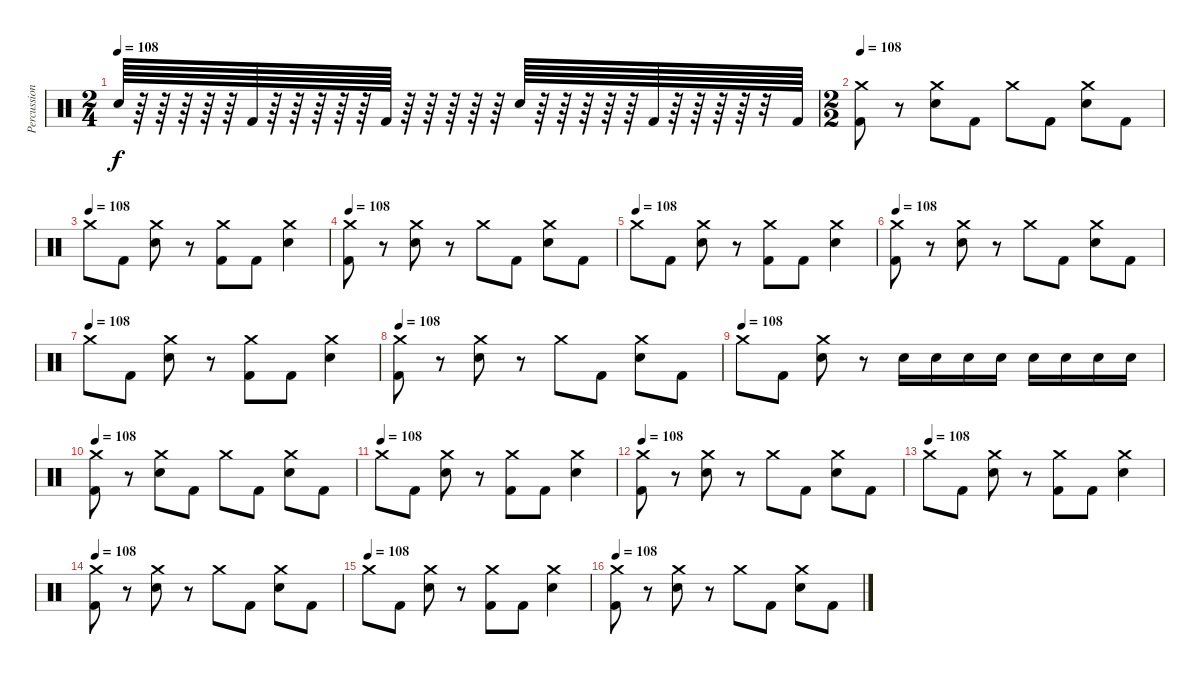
\track ("Percussion" "Percussion") {instrument percussion}
\staff {score}
\articulation defaults
\ts (2 4)
\tempo 108
\clef neutral
\ks c "Electric Snare (hit)".64{dy f}
r.64 r.64 r.64 r.64 r.64 "Kick (hit) 2".64 r.64 r.64 r.64 r.64 r.64 "Kick (hit) 2".64 r.64 r.64 r.64 r.64 r.64 "Electric Snare (hit)".64 r.64 r.64 r.64 r.64 r.64 "Kick (hit) 2".64 r.64 r.64 r.64 r.64 r.32 "Kick (hit) 2".64 |
\ts (2 2)
\tempo 108
("Crash medium (hit)" "Kick (hit) 2").8 r.8 ("Crash medium (hit)" "Electric Snare (hit)").8 "Kick (hit) 2".8 "Crash medium (hit)".8 "Kick (hit) 2".8 ("Crash medium (hit)" "Electric Snare (hit)").8 "Kick (hit) 2".8 |
\tempo (108)
"Crash medium (hit)".8 "Kick (hit) 2".8 ("Crash medium (hit)" "Electric Snare (hit)").8 r.8 ("Crash medium (hit)" "Kick (hit) 2").8 "Kick (hit) 2".8 ("Crash medium (hit)" "Electric Snare (hit)").4 |
\tempo 108
("Crash medium (hit)" "Kick (hit) 2").8 r.8 ("Crash medium (hit)" "Electric Snare (hit)").8 r.8 "Crash medium (hit)".8 "Kick (hit) 2".8 ("Crash medium (hit)" "Electric Snare (hit)").8 "Kick (hit) 2".8 |
\tempo (108)
"Crash medium (hit)".8 "Kick (hit) 2".8 ("Crash medium (hit)" "Electric Snare (hit)").8 r.8 ("Crash medium (hit)" "Kick (hit) 2").8 "Kick (hit) 2".8 ("Crash medium (hit)" "Electric Snare (hit)").4 |
\tempo 108
("Crash medium (hit)" "Kick (hit) 2").8 r.8 ("Crash medium (hit)" "Electric Snare (hit)").8 r.8 "Crash medium (hit)".8 "Kick (hit) 2".8 ("Crash medium (hit)" "Electric Snare (hit)").8 "Kick (hit) 2".8 |
\tempo (108)
"Crash medium (hit)".8 "Kick (hit) 2".8 ("Crash medium (hit)" "Electric Snare (hit)").8 r.8 ("Crash medium (hit)" "Kick (hit) 2").8 "Kick (hit) 2".8 ("Crash medium (hit)" "Electric Snare (hit)").4 |
\tempo 108
("Crash medium (hit)" "Kick (hit) 2").8 r.8 ("Crash medium (hit)" "Electric Snare (hit)").8 r.8 "Crash medium (hit)".8 "Kick (hit) 2".8 ("Crash medium (hit)" "Electric Snare (hit)").8 "Kick (hit) 2".8 |
\tempo (108)
"Crash medium (hit)".8 "Kick (hit) 2".8 ("Crash medium (hit)" "Electric Snare (hit)").8 r.8 "Electric Snare (hit)".16 "Electric Snare (hit)".16 "Electric Snare (hit)".16 "Electric Snare (hit)".16 "Electric Snare (hit)".16 "Electric Snare (hit)".16 "Electric Snare (hit)".16 "Electric Snare (hit)".16 |
\tempo 108
("Crash medium (hit)" "Kick (hit) 2").8 r.8 ("Crash medium (hit)" "Electric Snare (hit)").8 "Kick (hit) 2".8 "Crash medium (hit)".8 "Kick (hit) 2".8 ("Crash medium (hit)" "Electric Snare (hit)").8 "Kick (hit) 2".8 |
\tempo (108)
"Crash medium (hit)".8 "Kick (hit) 2".8 ("Crash medium (hit)" "Electric Snare (hit)").8 r.8 ("Crash medium (hit)" "Kick (hit) 2").8 "Kick (hit) 2".8 ("Crash medium (hit)" "Electric Snare (hit)").4 |
\tempo 108
("Crash medium (hit)" "Kick (hit) 2").8 r.8 ("Crash medium (hit)" "Electric Snare (hit)").8 r.8 "Crash medium (hit)".8 "Kick (hit) 2".8 ("Crash medium (hit)" "Electric Snare (hit)").8 "Kick (hit) 2".8 |
\tempo (108)
"Crash medium (hit)".8 "Kick (hit) 2".8 ("Crash medium (hit)" "Electric Snare (hit)").8 r.8 ("Crash medium (hit)" "Kick (hit) 2").8 "Kick (hit) 2".8 ("Crash medium (hit)" "Electric Snare (hit)").4 |
\tempo 108
("Crash medium (hit)" "Kick (hit) 2").8 r.8 ("Crash medium (hit)" "Electric Snare (hit)").8 r.8 "Crash medium (hit)".8 "Kick (hit) 2".8 ("Crash medium (hit)" "Electric Snare (hit)").8 "Kick (hit) 2".8 |
\tempo (108)
"Crash medium (hit)".8 "Kick (hit) 2".8 ("Crash medium (hit)" "Electric Snare (hit)").8 r.8 ("Crash medium (hit)" "Kick (hit) 2").8 "Kick (hit) 2".8 ("Crash medium (hit)" "Electric Snare (hit)").4 |
\tempo 108
("Crash medium (hit)" "Kick (hit) 2").8 r.8 ("Crash medium (hit)" "Electric Snare (hit)").8 r.8 "Crash medium (hit)".8 "Kick (hit) 2".8 ("Crash medium (hit)" "Electric Snare (hit)").8 "Kick (hit) 2".8
